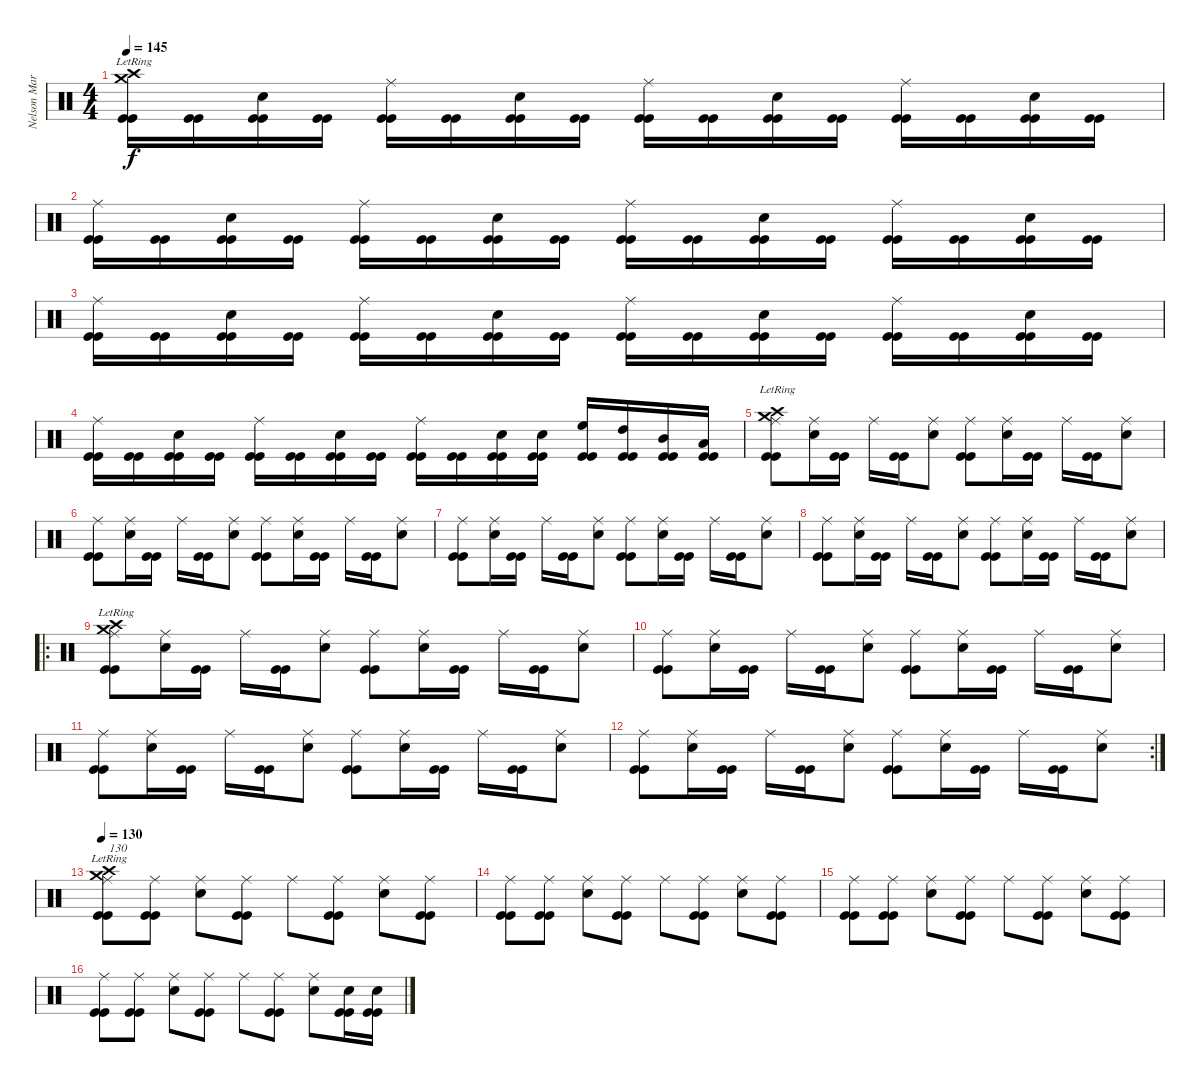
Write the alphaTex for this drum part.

\track ("Nelson Maria" "Nelson Mar") {instrument percussion}
\staff {score}
\articulation defaults
\ts (4 4)
\tempo 145
\clef neutral
\ks c
("Crash high (hit)"{lr} "Crash medium (hit)"{lr} "Kick (hit)" "Kick (hit)").16{dy f} ("Kick (hit)" "Kick (hit)").16 ("Snare (hit) 2" "Kick (hit)" "Kick (hit)").16 ("Kick (hit)" "Kick (hit)").16 ("Ride (middle)" "Kick (hit)" "Kick (hit)").16 ("Kick (hit)" "Kick (hit)").16 ("Snare (hit) 2" "Kick (hit)" "Kick (hit)").16 ("Kick (hit)" "Kick (hit)").16 ("Ride (middle)" "Kick (hit)" "Kick (hit)").16 ("Kick (hit)" "Kick (hit)").16 ("Snare (hit) 2" "Kick (hit)" "Kick (hit)").16 ("Kick (hit)" "Kick (hit)").16 ("Ride (middle)" "Kick (hit)" "Kick (hit)").16 ("Kick (hit)" "Kick (hit)").16 ("Snare (hit) 2" "Kick (hit)" "Kick (hit)").16 ("Kick (hit)" "Kick (hit)").16 |
("Ride (middle)" "Kick (hit)" "Kick (hit)").16 ("Kick (hit)" "Kick (hit)").16 ("Snare (hit) 2" "Kick (hit)" "Kick (hit)").16 ("Kick (hit)" "Kick (hit)").16 ("Ride (middle)" "Kick (hit)" "Kick (hit)").16 ("Kick (hit)" "Kick (hit)").16 ("Snare (hit) 2" "Kick (hit)" "Kick (hit)").16 ("Kick (hit)" "Kick (hit)").16 ("Ride (middle)" "Kick (hit)" "Kick (hit)").16 ("Kick (hit)" "Kick (hit)").16 ("Snare (hit) 2" "Kick (hit)" "Kick (hit)").16 ("Kick (hit)" "Kick (hit)").16 ("Ride (middle)" "Kick (hit)" "Kick (hit)").16 ("Kick (hit)" "Kick (hit)").16 ("Snare (hit) 2" "Kick (hit)" "Kick (hit)").16 ("Kick (hit)" "Kick (hit)").16 |
("Ride (middle)" "Kick (hit)" "Kick (hit)").16 ("Kick (hit)" "Kick (hit)").16 ("Snare (hit) 2" "Kick (hit)" "Kick (hit)").16 ("Kick (hit)" "Kick (hit)").16 ("Ride (middle)" "Kick (hit)" "Kick (hit)").16 ("Kick (hit)" "Kick (hit)").16 ("Snare (hit) 2" "Kick (hit)" "Kick (hit)").16 ("Kick (hit)" "Kick (hit)").16 ("Ride (middle)" "Kick (hit)" "Kick (hit)").16 ("Kick (hit)" "Kick (hit)").16 ("Snare (hit) 2" "Kick (hit)" "Kick (hit)").16 ("Kick (hit)" "Kick (hit)").16 ("Ride (middle)" "Kick (hit)" "Kick (hit)").16 ("Kick (hit)" "Kick (hit)").16 ("Snare (hit) 2" "Kick (hit)" "Kick (hit)").16 ("Kick (hit)" "Kick (hit)").16 |
("Ride (middle)" "Kick (hit)" "Kick (hit)").16 ("Kick (hit)" "Kick (hit)").16 ("Snare (hit) 2" "Kick (hit)" "Kick (hit)").16 ("Kick (hit)" "Kick (hit)").16 ("Ride (middle)" "Kick (hit)" "Kick (hit)").16 ("Kick (hit)" "Kick (hit)").16 ("Snare (hit) 2" "Kick (hit)" "Kick (hit)").16 ("Kick (hit)" "Kick (hit)").16 ("Ride (middle)" "Kick (hit)" "Kick (hit)").16 ("Kick (hit)" "Kick (hit)").16 ("Snare (hit) 2" "Kick (hit)" "Kick (hit)").16 ("Snare (hit) 2" "Kick (hit)" "Kick (hit)").16 ("High Floor Tom (hit)" "Kick (hit)" "Kick (hit)").16 ("High Tom (hit)" "Kick (hit)" "Kick (hit)").16 ("Mid Tom (hit)" "Kick (hit)" "Kick (hit)").16 ("Low Tom (hit)" "Kick (hit)" "Kick (hit)").16 |
("Crash high (hit)"{lr} "Crash medium (hit)"{lr} "Ride (middle)" "Kick (hit)" "Kick (hit)").8 ("Snare (hit) 2" "Ride (middle)").16 ("Kick (hit)" "Kick (hit)").16 "Ride (middle)".16 ("Kick (hit)" "Kick (hit)").16 ("Snare (hit) 2" "Ride (middle)").8 ("Ride (middle)" "Kick (hit)" "Kick (hit)").8 ("Snare (hit) 2" "Ride (middle)").16 ("Kick (hit)" "Kick (hit)").16 "Ride (middle)".16 ("Kick (hit)" "Kick (hit)").16 ("Snare (hit) 2" "Ride (middle)").8 |
("Ride (middle)" "Kick (hit)" "Kick (hit)").8 ("Snare (hit) 2" "Ride (middle)").16 ("Kick (hit)" "Kick (hit)").16 "Ride (middle)".16 ("Kick (hit)" "Kick (hit)").16 ("Snare (hit) 2" "Ride (middle)").8 ("Ride (middle)" "Kick (hit)" "Kick (hit)").8 ("Snare (hit) 2" "Ride (middle)").16 ("Kick (hit)" "Kick (hit)").16 "Ride (middle)".16 ("Kick (hit)" "Kick (hit)").16 ("Snare (hit) 2" "Ride (middle)").8 |
("Ride (middle)" "Kick (hit)" "Kick (hit)").8 ("Snare (hit) 2" "Ride (middle)").16 ("Kick (hit)" "Kick (hit)").16 "Ride (middle)".16 ("Kick (hit)" "Kick (hit)").16 ("Snare (hit) 2" "Ride (middle)").8 ("Ride (middle)" "Kick (hit)" "Kick (hit)").8 ("Snare (hit) 2" "Ride (middle)").16 ("Kick (hit)" "Kick (hit)").16 "Ride (middle)".16 ("Kick (hit)" "Kick (hit)").16 ("Snare (hit) 2" "Ride (middle)").8 |
("Ride (middle)" "Kick (hit)" "Kick (hit)").8 ("Snare (hit) 2" "Ride (middle)").16 ("Kick (hit)" "Kick (hit)").16 "Ride (middle)".16 ("Kick (hit)" "Kick (hit)").16 ("Snare (hit) 2" "Ride (middle)").8 ("Ride (middle)" "Kick (hit)" "Kick (hit)").8 ("Snare (hit) 2" "Ride (middle)").16 ("Kick (hit)" "Kick (hit)").16 "Ride (middle)".16 ("Kick (hit)" "Kick (hit)").16 ("Snare (hit) 2" "Ride (middle)").8 |
\ro
("Crash high (hit)"{lr} "Crash medium (hit)"{lr} "Ride (middle)" "Kick (hit)" "Kick (hit)").8 ("Snare (hit) 2" "Ride (middle)").16 ("Kick (hit)" "Kick (hit)").16 "Ride (middle)".16 ("Kick (hit)" "Kick (hit)").16 ("Snare (hit) 2" "Ride (middle)").8 ("Ride (middle)" "Kick (hit)" "Kick (hit)").8 ("Snare (hit) 2" "Ride (middle)").16 ("Kick (hit)" "Kick (hit)").16 "Ride (middle)".16 ("Kick (hit)" "Kick (hit)").16 ("Snare (hit) 2" "Ride (middle)").8 |
("Ride (middle)" "Kick (hit)" "Kick (hit)").8 ("Snare (hit) 2" "Ride (middle)").16 ("Kick (hit)" "Kick (hit)").16 "Ride (middle)".16 ("Kick (hit)" "Kick (hit)").16 ("Snare (hit) 2" "Ride (middle)").8 ("Ride (middle)" "Kick (hit)" "Kick (hit)").8 ("Snare (hit) 2" "Ride (middle)").16 ("Kick (hit)" "Kick (hit)").16 "Ride (middle)".16 ("Kick (hit)" "Kick (hit)").16 ("Snare (hit) 2" "Ride (middle)").8 |
("Ride (middle)" "Kick (hit)" "Kick (hit)").8 ("Snare (hit) 2" "Ride (middle)").16 ("Kick (hit)" "Kick (hit)").16 "Ride (middle)".16 ("Kick (hit)" "Kick (hit)").16 ("Snare (hit) 2" "Ride (middle)").8 ("Ride (middle)" "Kick (hit)" "Kick (hit)").8 ("Snare (hit) 2" "Ride (middle)").16 ("Kick (hit)" "Kick (hit)").16 "Ride (middle)".16 ("Kick (hit)" "Kick (hit)").16 ("Snare (hit) 2" "Ride (middle)").8 |
\rc 2
("Ride (middle)" "Kick (hit)" "Kick (hit)").8 ("Snare (hit) 2" "Ride (middle)").16 ("Kick (hit)" "Kick (hit)").16 "Ride (middle)".16 ("Kick (hit)" "Kick (hit)").16 ("Snare (hit) 2" "Ride (middle)").8 ("Ride (middle)" "Kick (hit)" "Kick (hit)").8 ("Snare (hit) 2" "Ride (middle)").16 ("Kick (hit)" "Kick (hit)").16 "Ride (middle)".16 ("Kick (hit)" "Kick (hit)").16 ("Snare (hit) 2" "Ride (middle)").8 |
\tempo 130
("Crash high (hit)"{lr} "Crash medium (hit)"{lr} "Ride (middle)" "Kick (hit)" "Kick (hit)").8{txt "130"} ("Ride (middle)" "Kick (hit)" "Kick (hit)").8 ("Snare (hit) 2" "Ride (middle)").8 ("Ride (middle)" "Kick (hit)" "Kick (hit)").8 "Ride (middle)".8 ("Ride (middle)" "Kick (hit)" "Kick (hit)").8 ("Snare (hit) 2" "Ride (middle)").8 ("Ride (middle)" "Kick (hit)" "Kick (hit)").8 |
("Ride (middle)" "Kick (hit)" "Kick (hit)").8 ("Ride (middle)" "Kick (hit)" "Kick (hit)").8 ("Snare (hit) 2" "Ride (middle)").8 ("Ride (middle)" "Kick (hit)" "Kick (hit)").8 "Ride (middle)".8 ("Ride (middle)" "Kick (hit)" "Kick (hit)").8 ("Snare (hit) 2" "Ride (middle)").8 ("Ride (middle)" "Kick (hit)" "Kick (hit)").8 |
("Ride (middle)" "Kick (hit)" "Kick (hit)").8 ("Ride (middle)" "Kick (hit)" "Kick (hit)").8 ("Snare (hit) 2" "Ride (middle)").8 ("Ride (middle)" "Kick (hit)" "Kick (hit)").8 "Ride (middle)".8 ("Ride (middle)" "Kick (hit)" "Kick (hit)").8 ("Snare (hit) 2" "Ride (middle)").8 ("Ride (middle)" "Kick (hit)" "Kick (hit)").8 |
("Ride (middle)" "Kick (hit)" "Kick (hit)").8 ("Ride (middle)" "Kick (hit)" "Kick (hit)").8 ("Snare (hit) 2" "Ride (middle)").8 ("Ride (middle)" "Kick (hit)" "Kick (hit)").8 "Ride (middle)".8 ("Ride (middle)" "Kick (hit)" "Kick (hit)").8 ("Snare (hit) 2" "Ride (middle)").8 ("Snare (hit) 2" "Kick (hit)" "Kick (hit)").16 ("Snare (hit) 2" "Kick (hit)" "Kick (hit)").16
